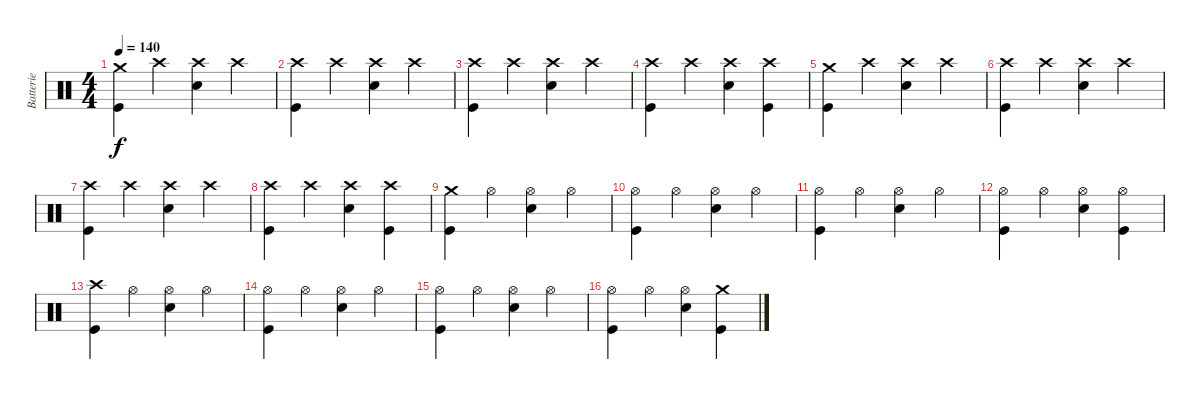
\track ("Batterie" "Batterie") {instrument percussion}
\staff {score}
\articulation defaults
\ts (4 4)
\tempo 140
\clef neutral
\ks c
("Crash medium (hit)" "Kick (hit)").4{dy f} "Crash high (hit)".4 ("Crash high (hit)" "Electric Snare (hit)").4 "Crash high (hit)".4 |
("Crash high (hit)" "Kick (hit)").4 "Crash high (hit)".4 ("Crash high (hit)" "Electric Snare (hit)").4 "Crash high (hit)".4 |
("Crash high (hit)" "Kick (hit)").4 "Crash high (hit)".4 ("Crash high (hit)" "Electric Snare (hit)").4 "Crash high (hit)".4 |
("Crash high (hit)" "Kick (hit)").4 "Crash high (hit)".4 ("Crash high (hit)" "Electric Snare (hit)").4 ("Crash high (hit)" "Kick (hit)").4 |
("Crash medium (hit)" "Kick (hit)").4 "Crash high (hit)".4 ("Crash high (hit)" "Electric Snare (hit)").4 "Crash high (hit)".4 |
("Crash high (hit)" "Kick (hit)").4 "Crash high (hit)".4 ("Crash high (hit)" "Electric Snare (hit)").4 "Crash high (hit)".4 |
("Crash high (hit)" "Kick (hit)").4 "Crash high (hit)".4 ("Crash high (hit)" "Electric Snare (hit)").4 "Crash high (hit)".4 |
("Crash high (hit)" "Kick (hit)").4 "Crash high (hit)".4 ("Crash high (hit)" "Electric Snare (hit)").4 ("Crash high (hit)" "Kick (hit)").4 |
("Crash medium (hit)" "Kick (hit)").4 "Hi-Hat (open)".4 ("Hi-Hat (open)" "Electric Snare (hit)").4 "Hi-Hat (open)".4 |
("Hi-Hat (open)" "Kick (hit)").4 "Hi-Hat (open)".4 ("Hi-Hat (open)" "Electric Snare (hit)").4 "Hi-Hat (open)".4 |
("Hi-Hat (open)" "Kick (hit)").4 "Hi-Hat (open)".4 ("Hi-Hat (open)" "Electric Snare (hit)").4 "Hi-Hat (open)".4 |
("Hi-Hat (open)" "Kick (hit)").4 "Hi-Hat (open)".4 ("Hi-Hat (open)" "Electric Snare (hit)").4 ("Hi-Hat (open)" "Kick (hit)").4 |
("Crash high (hit)" "Kick (hit)").4 "Hi-Hat (open)".4 ("Hi-Hat (open)" "Electric Snare (hit)").4 "Hi-Hat (open)".4 |
("Hi-Hat (open)" "Kick (hit)").4 "Hi-Hat (open)".4 ("Hi-Hat (open)" "Electric Snare (hit)").4 "Hi-Hat (open)".4 |
("Hi-Hat (open)" "Kick (hit)").4 "Hi-Hat (open)".4 ("Hi-Hat (open)" "Electric Snare (hit)").4 "Hi-Hat (open)".4 |
("Hi-Hat (open)" "Kick (hit)").4 "Hi-Hat (open)".4 ("Hi-Hat (open)" "Electric Snare (hit)").4 ("Crash medium (hit)" "Kick (hit)").4
